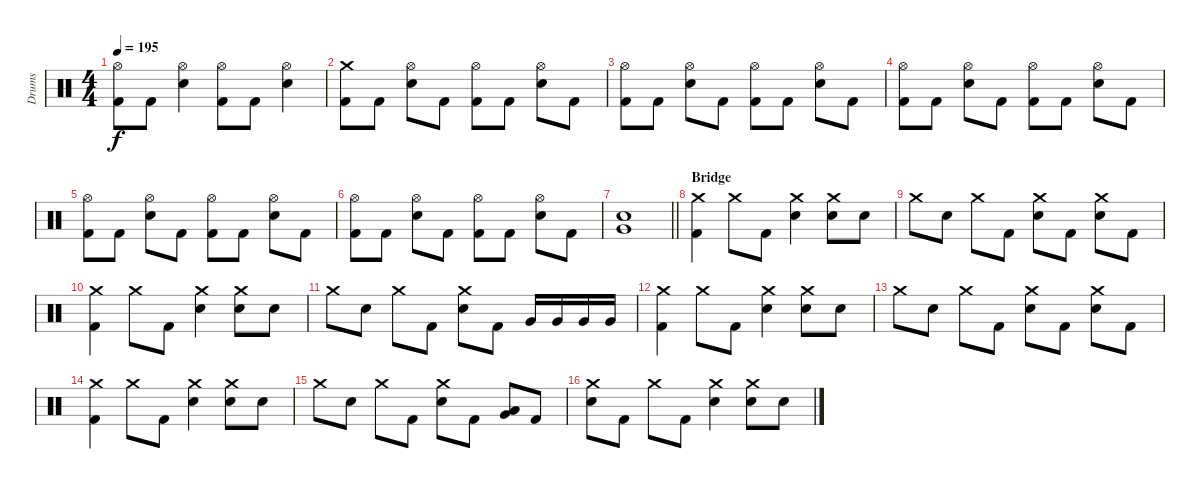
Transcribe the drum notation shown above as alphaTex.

\track ("Drums" "Drums") {instrument percussion}
\staff {score}
\articulation defaults
\ts (4 4)
\tempo 195
\clef neutral
\ks c
("Hi-Hat (open)" "Kick (hit) 2").8{dy f} "Kick (hit) 2".8 ("Hi-Hat (open)" "Electric Snare (hit)").4 ("Hi-Hat (open)" "Kick (hit) 2").8 "Kick (hit) 2".8 ("Hi-Hat (open)" "Electric Snare (hit)").4 |
("Crash medium (hit)" "Kick (hit) 2").8 "Kick (hit) 2".8 ("Hi-Hat (open)" "Electric Snare (hit)").8 "Kick (hit) 2".8 ("Hi-Hat (open)" "Kick (hit) 2").8 "Kick (hit) 2".8 ("Hi-Hat (open)" "Electric Snare (hit)").8 "Kick (hit) 2".8 |
("Hi-Hat (open)" "Kick (hit) 2").8 "Kick (hit) 2".8 ("Hi-Hat (open)" "Electric Snare (hit)").8 "Kick (hit) 2".8 ("Hi-Hat (open)" "Kick (hit) 2").8 "Kick (hit) 2".8 ("Hi-Hat (open)" "Electric Snare (hit)").8 "Kick (hit) 2".8 |
("Hi-Hat (open)" "Kick (hit) 2").8 "Kick (hit) 2".8 ("Hi-Hat (open)" "Electric Snare (hit)").8 "Kick (hit) 2".8 ("Hi-Hat (open)" "Kick (hit) 2").8 "Kick (hit) 2".8 ("Hi-Hat (open)" "Electric Snare (hit)").8 "Kick (hit) 2".8 |
("Hi-Hat (open)" "Kick (hit) 2").8 "Kick (hit) 2".8 ("Hi-Hat (open)" "Electric Snare (hit)").8 "Kick (hit) 2".8 ("Hi-Hat (open)" "Kick (hit) 2").8 "Kick (hit) 2".8 ("Hi-Hat (open)" "Electric Snare (hit)").8 "Kick (hit) 2".8 |
("Hi-Hat (open)" "Kick (hit) 2").8 "Kick (hit) 2".8 ("Hi-Hat (open)" "Electric Snare (hit)").8 "Kick (hit) 2".8 ("Hi-Hat (open)" "Kick (hit) 2").8 "Kick (hit) 2".8 ("Hi-Hat (open)" "Electric Snare (hit)").8 "Kick (hit) 2".8 |
\barLineRight lightlight
("Very Low Tom (hit)" "Electric Snare (hit)").1 |
\section ("" "Bridge")
("Crash medium (hit)" "Kick (hit) 2").4 "Crash medium (hit)".8 "Kick (hit) 2".8 ("Crash medium (hit)" "Electric Snare (hit)").4 ("Crash medium (hit)" "Electric Snare (hit)").8 "Electric Snare (hit)".8 |
"Crash medium (hit)".8 "Electric Snare (hit)".8 "Crash medium (hit)".8 "Kick (hit) 2".8 ("Crash medium (hit)" "Electric Snare (hit)").8 "Kick (hit) 2".8 ("Crash medium (hit)" "Electric Snare (hit)").8 "Kick (hit) 2".8 |
("Crash medium (hit)" "Kick (hit) 2").4 "Crash medium (hit)".8 "Kick (hit) 2".8 ("Crash medium (hit)" "Electric Snare (hit)").4 ("Crash medium (hit)" "Electric Snare (hit)").8 "Electric Snare (hit)".8 |
"Crash medium (hit)".8 "Electric Snare (hit)".8 "Crash medium (hit)".8 "Kick (hit) 2".8 ("Crash medium (hit)" "Electric Snare (hit)").8 "Kick (hit) 2".8 "Very Low Tom (hit)".16 "Very Low Tom (hit)".16 "Very Low Tom (hit)".16 "Very Low Tom (hit)".16 |
("Crash medium (hit)" "Kick (hit) 2").4 "Crash medium (hit)".8 "Kick (hit) 2".8 ("Crash medium (hit)" "Electric Snare (hit)").4 ("Crash medium (hit)" "Electric Snare (hit)").8 "Electric Snare (hit)".8 |
"Crash medium (hit)".8 "Electric Snare (hit)".8 "Crash medium (hit)".8 "Kick (hit) 2".8 ("Crash medium (hit)" "Electric Snare (hit)").8 "Kick (hit) 2".8 ("Crash medium (hit)" "Electric Snare (hit)").8 "Kick (hit) 2".8 |
("Crash medium (hit)" "Kick (hit) 2").4 "Crash medium (hit)".8 "Kick (hit) 2".8 ("Crash medium (hit)" "Electric Snare (hit)").4 ("Crash medium (hit)" "Electric Snare (hit)").8 "Electric Snare (hit)".8 |
"Crash medium (hit)".8 "Electric Snare (hit)".8 "Crash medium (hit)".8 "Kick (hit) 2".8 ("Crash medium (hit)" "Electric Snare (hit)").8 "Kick (hit) 2".8 ("Low Floor Tom (hit)" "Very Low Tom (hit)").8 "Kick (hit) 2".8 |
("Crash medium (hit)" "Electric Snare (hit)").8 "Kick (hit) 2".8 "Crash medium (hit)".8 "Kick (hit) 2".8 ("Crash medium (hit)" "Electric Snare (hit)").4 ("Crash medium (hit)" "Electric Snare (hit)").8 "Electric Snare (hit)".8
